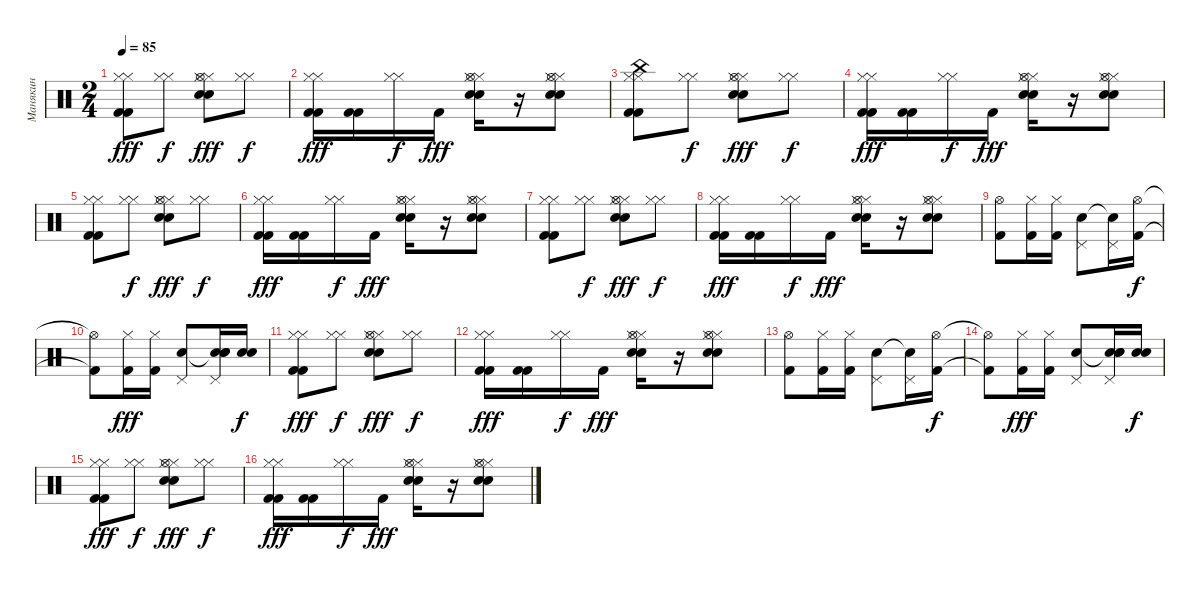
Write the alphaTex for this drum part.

\track ("Манякин" "Манякин") {instrument percussion}
\staff {score}
\articulation defaults
\ts (2 4)
\tempo 85
\clef neutral
\ks c
("Kick (hit) 2" "Kick (hit) 2" "Hi-Hat (closed)" "Hi-Hat (closed)").8{dy fff} ("Hi-Hat (closed)" "Hi-Hat (closed)").8{dy f} ("Snare (hit) 2" "Snare (hit) 2" "Hi-Hat (closed)" "Hi-Hat (closed)" "Hi-Hat (open)").8{dy fff} ("Hi-Hat (closed)" "Hi-Hat (closed)").8{dy f} |
("Kick (hit) 2" "Kick (hit) 2" "Hi-Hat (closed)" "Hi-Hat (closed)").16{dy fff} ("Kick (hit) 2" "Kick (hit) 2").16 ("Hi-Hat (closed)" "Hi-Hat (closed)").16{dy f} "Kick (hit) 2".16{dy fff} ("Snare (hit) 2" "Snare (hit) 2" "Hi-Hat (closed)" "Hi-Hat (closed)" "Hi-Hat (open)").16 r.16 ("Snare (hit) 2" "Snare (hit) 2" "Hi-Hat (closed)" "Hi-Hat (closed)" "Hi-Hat (open)").8 |
("Kick (hit) 2" "Kick (hit) 2" "Hi-Hat (closed)" "Hi-Hat (closed)" "China (hit)").8 ("Hi-Hat (closed)" "Hi-Hat (closed)").8{dy f} ("Snare (hit) 2" "Snare (hit) 2" "Hi-Hat (closed)" "Hi-Hat (closed)" "Hi-Hat (open)").8{dy fff} ("Hi-Hat (closed)" "Hi-Hat (closed)").8{dy f} |
("Kick (hit) 2" "Kick (hit) 2" "Hi-Hat (closed)" "Hi-Hat (closed)").16{dy fff} ("Kick (hit) 2" "Kick (hit) 2").16 ("Hi-Hat (closed)" "Hi-Hat (closed)").16{dy f} "Kick (hit) 2".16{dy fff} ("Snare (hit) 2" "Snare (hit) 2" "Hi-Hat (closed)" "Hi-Hat (closed)" "Hi-Hat (open)").16 r.16 ("Snare (hit) 2" "Snare (hit) 2" "Hi-Hat (closed)" "Hi-Hat (closed)" "Hi-Hat (open)").8 |
("Kick (hit) 2" "Kick (hit) 2" "Hi-Hat (closed)" "Hi-Hat (closed)").8 ("Hi-Hat (closed)" "Hi-Hat (closed)").8{dy f} ("Snare (hit) 2" "Snare (hit) 2" "Hi-Hat (closed)" "Hi-Hat (closed)" "Hi-Hat (open)").8{dy fff} ("Hi-Hat (closed)" "Hi-Hat (closed)").8{dy f} |
("Kick (hit) 2" "Kick (hit) 2" "Hi-Hat (closed)" "Hi-Hat (closed)").16{dy fff} ("Kick (hit) 2" "Kick (hit) 2").16 ("Hi-Hat (closed)" "Hi-Hat (closed)").16{dy f} "Kick (hit) 2".16{dy fff} ("Snare (hit) 2" "Snare (hit) 2" "Hi-Hat (closed)" "Hi-Hat (closed)" "Hi-Hat (open)").16 r.16 ("Snare (hit) 2" "Snare (hit) 2" "Hi-Hat (closed)" "Hi-Hat (closed)" "Hi-Hat (open)").8 |
("Kick (hit) 2" "Kick (hit) 2" "Hi-Hat (closed)" "Hi-Hat (closed)").8 ("Hi-Hat (closed)" "Hi-Hat (closed)").8{dy f} ("Snare (hit) 2" "Snare (hit) 2" "Hi-Hat (closed)" "Hi-Hat (closed)" "Hi-Hat (open)").8{dy fff} ("Hi-Hat (closed)" "Hi-Hat (closed)").8{dy f} |
("Kick (hit) 2" "Kick (hit) 2" "Hi-Hat (closed)" "Hi-Hat (closed)").16{dy fff} ("Kick (hit) 2" "Kick (hit) 2").16 ("Hi-Hat (closed)" "Hi-Hat (closed)").16{dy f} "Kick (hit) 2".16{dy fff} ("Snare (hit) 2" "Snare (hit) 2" "Hi-Hat (closed)" "Hi-Hat (closed)" "Hi-Hat (open)").16 r.16 ("Snare (hit) 2" "Snare (hit) 2" "Hi-Hat (closed)" "Hi-Hat (closed)" "Hi-Hat (open)").8 |
("Kick (hit) 2" "Hi-Hat (open)").8 ("Kick (hit) 2" "Hi-Hat (closed)").16 ("Kick (hit) 2" "Hi-Hat (closed)").16 ("Snare (hit) 2" "Pedal Hi-Hat (hit)").8 ("Snare (hit)"{t} "Pedal Hi-Hat (hit)").16 ("Kick (hit) 2" "Hi-Hat (open)").16{dy f} |
("Kick (hit) 2"{t} "Hi-Hat (open)"{t}).8 ("Kick (hit) 2" "Hi-Hat (closed)").16{dy fff} ("Kick (hit) 2" "Hi-Hat (closed)").16 ("Snare (hit) 2" "Pedal Hi-Hat (hit)").8 ("Snare (hit)"{t} "Pedal Hi-Hat (hit)" "Snare (hit) 2" "Snare (hit) 2").16 ("Snare (hit) 2" "Snare (hit) 2").16{dy f} |
("Kick (hit) 2" "Kick (hit) 2" "Hi-Hat (closed)" "Hi-Hat (closed)").8{dy fff} ("Hi-Hat (closed)" "Hi-Hat (closed)").8{dy f} ("Snare (hit) 2" "Snare (hit) 2" "Hi-Hat (closed)" "Hi-Hat (closed)" "Hi-Hat (open)").8{dy fff} ("Hi-Hat (closed)" "Hi-Hat (closed)").8{dy f} |
("Kick (hit) 2" "Kick (hit) 2" "Hi-Hat (closed)" "Hi-Hat (closed)").16{dy fff} ("Kick (hit) 2" "Kick (hit) 2").16 ("Hi-Hat (closed)" "Hi-Hat (closed)").16{dy f} "Kick (hit) 2".16{dy fff} ("Snare (hit) 2" "Snare (hit) 2" "Hi-Hat (closed)" "Hi-Hat (closed)" "Hi-Hat (open)").16 r.16 ("Snare (hit) 2" "Snare (hit) 2" "Hi-Hat (closed)" "Hi-Hat (closed)" "Hi-Hat (open)").8 |
("Kick (hit) 2" "Hi-Hat (open)").8 ("Kick (hit) 2" "Hi-Hat (closed)").16 ("Kick (hit) 2" "Hi-Hat (closed)").16 ("Snare (hit) 2" "Pedal Hi-Hat (hit)").8 ("Snare (hit)"{t} "Pedal Hi-Hat (hit)").16 ("Kick (hit) 2" "Hi-Hat (open)").16{dy f} |
("Kick (hit) 2"{t} "Hi-Hat (open)"{t}).8 ("Kick (hit) 2" "Hi-Hat (closed)").16{dy fff} ("Kick (hit) 2" "Hi-Hat (closed)").16 ("Snare (hit) 2" "Pedal Hi-Hat (hit)").8 ("Snare (hit)"{t} "Pedal Hi-Hat (hit)" "Snare (hit) 2" "Snare (hit) 2").16 ("Snare (hit) 2" "Snare (hit) 2").16{dy f} |
("Kick (hit) 2" "Kick (hit) 2" "Hi-Hat (closed)" "Hi-Hat (closed)").8{dy fff} ("Hi-Hat (closed)" "Hi-Hat (closed)").8{dy f} ("Snare (hit) 2" "Snare (hit) 2" "Hi-Hat (closed)" "Hi-Hat (closed)" "Hi-Hat (open)").8{dy fff} ("Hi-Hat (closed)" "Hi-Hat (closed)").8{dy f} |
("Kick (hit) 2" "Kick (hit) 2" "Hi-Hat (closed)" "Hi-Hat (closed)").16{dy fff} ("Kick (hit) 2" "Kick (hit) 2").16 ("Hi-Hat (closed)" "Hi-Hat (closed)").16{dy f} "Kick (hit) 2".16{dy fff} ("Snare (hit) 2" "Snare (hit) 2" "Hi-Hat (closed)" "Hi-Hat (closed)" "Hi-Hat (open)").16 r.16 ("Snare (hit) 2" "Snare (hit) 2" "Hi-Hat (closed)" "Hi-Hat (closed)" "Hi-Hat (open)").8
